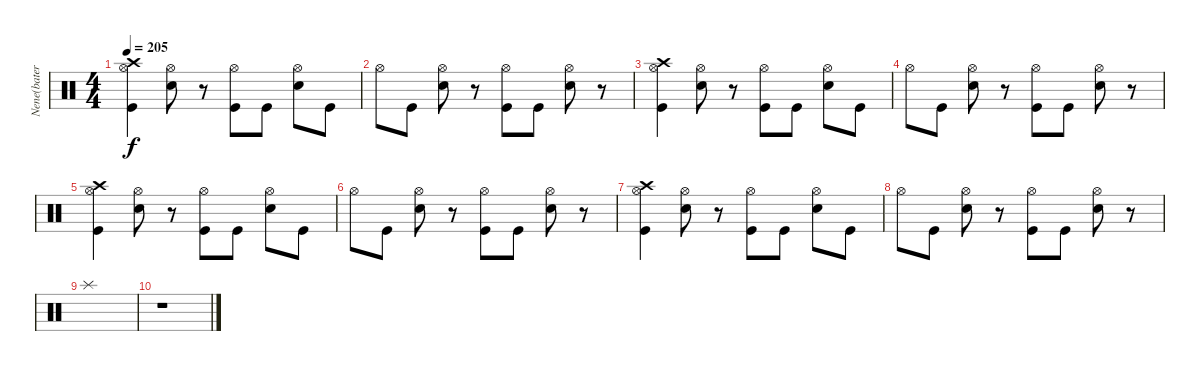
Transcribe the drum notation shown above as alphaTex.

\track ("Nene(batera)" "Nene(bater") {instrument percussion}
\staff {score}
\articulation defaults
\ts (4 4)
\tempo 205
\clef neutral
\ks c
("Crash high (hit)" "Kick (hit)" "Hi-Hat (open)").4{dy f} ("Electric Snare (hit)" "Hi-Hat (open)").8 r.8 ("Kick (hit)" "Hi-Hat (open)").8 "Kick (hit)".8 ("Electric Snare (hit)" "Hi-Hat (open)").8 "Kick (hit)".8 |
"Hi-Hat (open)".8 "Kick (hit)".8 ("Electric Snare (hit)" "Hi-Hat (open)").8 r.8 ("Kick (hit)" "Hi-Hat (open)").8 "Kick (hit)".8 ("Electric Snare (hit)" "Hi-Hat (open)").8 r.8 |
("Crash high (hit)" "Kick (hit)" "Hi-Hat (open)").4 ("Electric Snare (hit)" "Hi-Hat (open)").8 r.8 ("Kick (hit)" "Hi-Hat (open)").8 "Kick (hit)".8 ("Electric Snare (hit)" "Hi-Hat (open)").8 "Kick (hit)".8 |
"Hi-Hat (open)".8 "Kick (hit)".8 ("Electric Snare (hit)" "Hi-Hat (open)").8 r.8 ("Kick (hit)" "Hi-Hat (open)").8 "Kick (hit)".8 ("Electric Snare (hit)" "Hi-Hat (open)").8 r.8 |
("Crash high (hit)" "Kick (hit)" "Hi-Hat (open)").4 ("Electric Snare (hit)" "Hi-Hat (open)").8 r.8 ("Kick (hit)" "Hi-Hat (open)").8 "Kick (hit)".8 ("Electric Snare (hit)" "Hi-Hat (open)").8 "Kick (hit)".8 |
"Hi-Hat (open)".8 "Kick (hit)".8 ("Electric Snare (hit)" "Hi-Hat (open)").8 r.8 ("Kick (hit)" "Hi-Hat (open)").8 "Kick (hit)".8 ("Electric Snare (hit)" "Hi-Hat (open)").8 r.8 |
("Crash high (hit)" "Kick (hit)" "Hi-Hat (open)").4 ("Electric Snare (hit)" "Hi-Hat (open)").8 r.8 ("Kick (hit)" "Hi-Hat (open)").8 "Kick (hit)".8 ("Electric Snare (hit)" "Hi-Hat (open)").8 "Kick (hit)".8 |
"Hi-Hat (open)".8 "Kick (hit)".8 ("Electric Snare (hit)" "Hi-Hat (open)").8 r.8 ("Kick (hit)" "Hi-Hat (open)").8 "Kick (hit)".8 ("Electric Snare (hit)" "Hi-Hat (open)").8 r.8 |
"Splash (hit)".1 |
r.1
